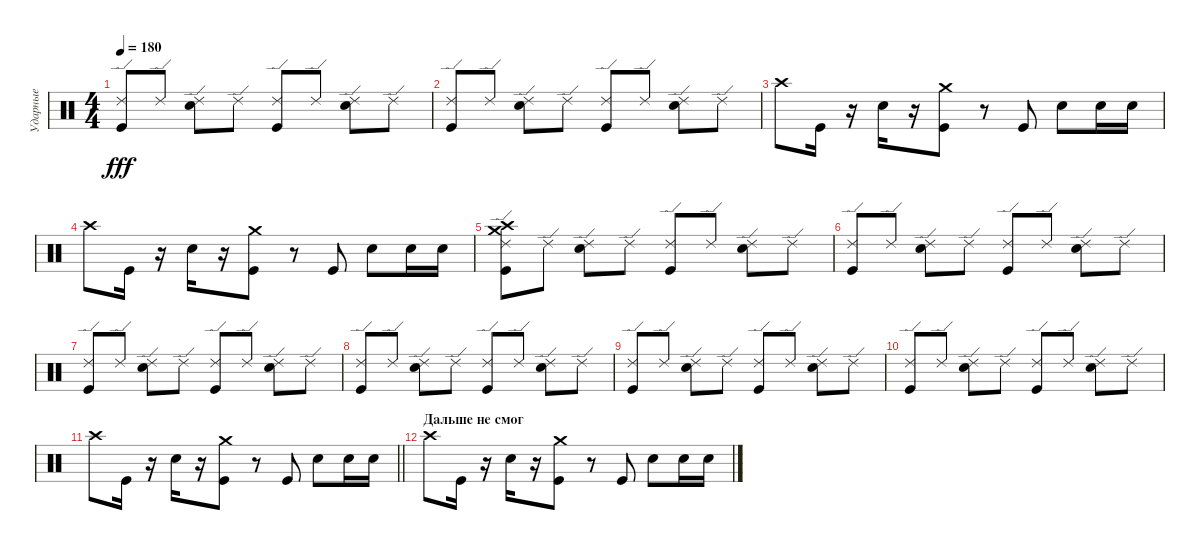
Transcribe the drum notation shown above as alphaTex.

\track ("Ударные" "Ударные") {instrument percussion}
\staff {score}
\articulation defaults
\ts (4 4)
\tempo 180
\clef neutral
\ks c
("Ride (edge) 2" "Kick (hit)").8{dy fff} "Ride (edge) 2".8 ("Ride (edge) 2" "Electric Snare (hit)").8 "Ride (edge) 2".8 ("Ride (edge) 2" "Kick (hit)").8 "Ride (edge) 2".8 ("Ride (edge) 2" "Electric Snare (hit)").8 "Ride (edge) 2".8 |
("Ride (edge) 2" "Kick (hit)").8 "Ride (edge) 2".8 ("Ride (edge) 2" "Electric Snare (hit)").8 "Ride (edge) 2".8 ("Ride (edge) 2" "Kick (hit)").8 "Ride (edge) 2".8 ("Ride (edge) 2" "Electric Snare (hit)").8 "Ride (edge) 2".8 |
"Crash high (hit)".8 "Kick (hit)".16 r.16 "Electric Snare (hit)".16 r.16 ("Crash medium (hit)" "Kick (hit)").8 r.8 "Kick (hit)".8 "Electric Snare (hit)".8 "Electric Snare (hit)".16 "Electric Snare (hit)".16 |
"Crash high (hit)".8 "Kick (hit)".16 r.16 "Electric Snare (hit)".16 r.16 ("Crash medium (hit)" "Kick (hit)").8 r.8 "Kick (hit)".8 "Electric Snare (hit)".8 "Electric Snare (hit)".16 "Electric Snare (hit)".16 |
("Ride (edge) 2" "Kick (hit)" "Crash high (hit)" "Crash medium (hit)").8 "Ride (edge) 2".8 ("Ride (edge) 2" "Electric Snare (hit)").8 "Ride (edge) 2".8 ("Ride (edge) 2" "Kick (hit)").8 "Ride (edge) 2".8 ("Ride (edge) 2" "Electric Snare (hit)").8 "Ride (edge) 2".8 |
("Ride (edge) 2" "Kick (hit)").8 "Ride (edge) 2".8 ("Ride (edge) 2" "Electric Snare (hit)").8 "Ride (edge) 2".8 ("Ride (edge) 2" "Kick (hit)").8 "Ride (edge) 2".8 ("Ride (edge) 2" "Electric Snare (hit)").8 "Ride (edge) 2".8 |
("Ride (edge) 2" "Kick (hit)").8 "Ride (edge) 2".8 ("Ride (edge) 2" "Electric Snare (hit)").8 "Ride (edge) 2".8 ("Ride (edge) 2" "Kick (hit)").8 "Ride (edge) 2".8 ("Ride (edge) 2" "Electric Snare (hit)").8 "Ride (edge) 2".8 |
("Ride (edge) 2" "Kick (hit)").8 "Ride (edge) 2".8 ("Ride (edge) 2" "Electric Snare (hit)").8 "Ride (edge) 2".8 ("Ride (edge) 2" "Kick (hit)").8 "Ride (edge) 2".8 ("Ride (edge) 2" "Electric Snare (hit)").8 "Ride (edge) 2".8 |
("Ride (edge) 2" "Kick (hit)").8 "Ride (edge) 2".8 ("Ride (edge) 2" "Electric Snare (hit)").8 "Ride (edge) 2".8 ("Ride (edge) 2" "Kick (hit)").8 "Ride (edge) 2".8 ("Ride (edge) 2" "Electric Snare (hit)").8 "Ride (edge) 2".8 |
("Ride (edge) 2" "Kick (hit)").8 "Ride (edge) 2".8 ("Ride (edge) 2" "Electric Snare (hit)").8 "Ride (edge) 2".8 ("Ride (edge) 2" "Kick (hit)").8 "Ride (edge) 2".8 ("Ride (edge) 2" "Electric Snare (hit)").8 "Ride (edge) 2".8 |
\barLineRight lightlight "Crash high (hit)".8 "Kick (hit)".16
r.16 "Electric Snare (hit)".16 r.16 ("Crash medium (hit)" "Kick (hit)").8 r.8 "Kick (hit)".8 "Electric Snare (hit)".8 "Electric Snare (hit)".16 "Electric Snare (hit)".16 |
\section ("" "Дальше не смог")
"Crash high (hit)".8 "Kick (hit)".16 r.16 "Electric Snare (hit)".16 r.16 ("Crash medium (hit)" "Kick (hit)").8 r.8 "Kick (hit)".8 "Electric Snare (hit)".8 "Electric Snare (hit)".16 "Electric Snare (hit)".16
